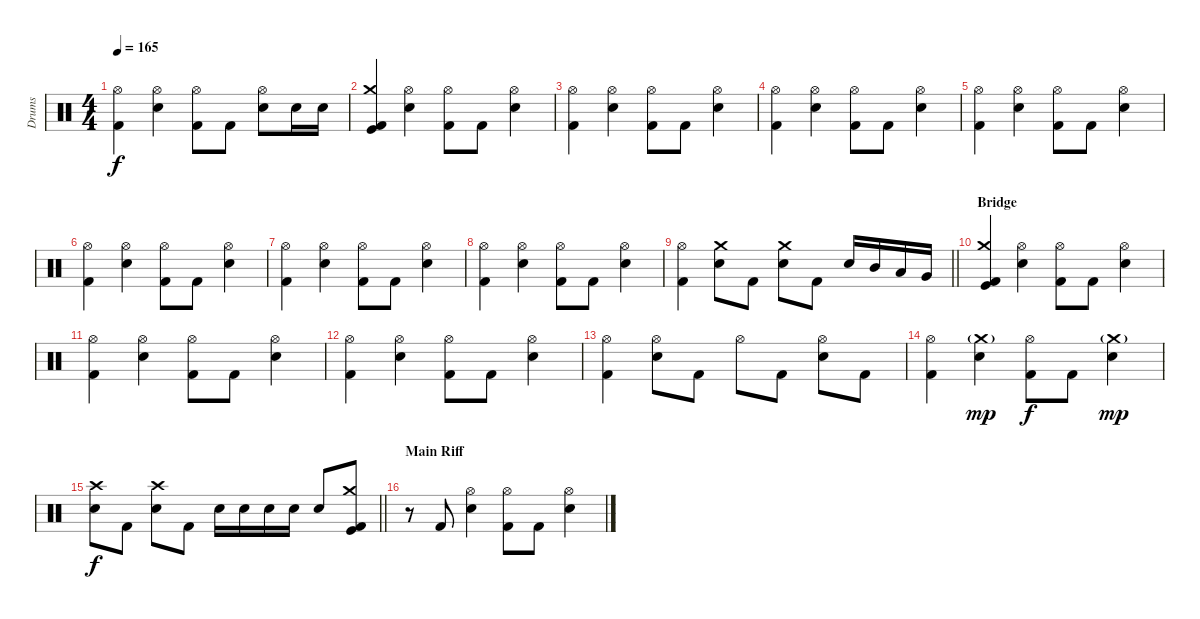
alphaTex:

\track ("Drums" "Drums") {instrument percussion}
\staff {score}
\articulation defaults
\ts (4 4)
\tempo 165
\clef neutral
\ks c
("Hi-Hat (open)" "Kick (hit) 2").4{dy f} ("Hi-Hat (open)" "Electric Snare (hit)").4 ("Hi-Hat (open)" "Kick (hit) 2").8 "Kick (hit) 2".8 ("Hi-Hat (open)" "Electric Snare (hit)").8 "Electric Snare (hit)".16 "Electric Snare (hit)".16 |
("Crash medium (hit)" "Kick (hit) 2" "Kick (hit)").4 ("Hi-Hat (open)" "Electric Snare (hit)").4 ("Hi-Hat (open)" "Kick (hit) 2").8 "Kick (hit) 2".8 ("Hi-Hat (open)" "Electric Snare (hit)").4 |
("Hi-Hat (open)" "Kick (hit) 2").4 ("Hi-Hat (open)" "Electric Snare (hit)").4 ("Hi-Hat (open)" "Kick (hit) 2").8 "Kick (hit) 2".8 ("Hi-Hat (open)" "Electric Snare (hit)").4 |
("Hi-Hat (open)" "Kick (hit) 2").4 ("Hi-Hat (open)" "Electric Snare (hit)").4 ("Hi-Hat (open)" "Kick (hit) 2").8 "Kick (hit) 2".8 ("Hi-Hat (open)" "Electric Snare (hit)").4 |
("Hi-Hat (open)" "Kick (hit) 2").4 ("Hi-Hat (open)" "Electric Snare (hit)").4 ("Hi-Hat (open)" "Kick (hit) 2").8 "Kick (hit) 2".8 ("Hi-Hat (open)" "Electric Snare (hit)").4 |
("Hi-Hat (open)" "Kick (hit) 2").4 ("Hi-Hat (open)" "Electric Snare (hit)").4 ("Hi-Hat (open)" "Kick (hit) 2").8 "Kick (hit) 2".8 ("Hi-Hat (open)" "Electric Snare (hit)").4 |
("Hi-Hat (open)" "Kick (hit) 2").4 ("Hi-Hat (open)" "Electric Snare (hit)").4 ("Hi-Hat (open)" "Kick (hit) 2").8 "Kick (hit) 2".8 ("Hi-Hat (open)" "Electric Snare (hit)").4 |
("Hi-Hat (open)" "Kick (hit) 2").4 ("Hi-Hat (open)" "Electric Snare (hit)").4 ("Hi-Hat (open)" "Kick (hit) 2").8 "Kick (hit) 2".8 ("Hi-Hat (open)" "Electric Snare (hit)").4 |
\barLineRight lightlight
("Hi-Hat (open)" "Kick (hit) 2").4 ("Crash medium (hit)" "Electric Snare (hit)").8 "Kick (hit) 2".8 ("Crash medium (hit)" "Electric Snare (hit)").8 "Kick (hit) 2".8 "Electric Snare (hit)".16 "Mid Tom (hit)".16 "Low Tom (hit)".16 "Very Low Tom (hit)".16 |
\section ("" "Bridge")
("Crash medium (hit)" "Kick (hit) 2" "Kick (hit)").4 ("Hi-Hat (open)" "Electric Snare (hit)").4 ("Hi-Hat (open)" "Kick (hit) 2").8 "Kick (hit) 2".8 ("Hi-Hat (open)" "Electric Snare (hit)").4 |
("Hi-Hat (open)" "Kick (hit) 2").4 ("Hi-Hat (open)" "Electric Snare (hit)").4 ("Hi-Hat (open)" "Kick (hit) 2").8 "Kick (hit) 2".8 ("Hi-Hat (open)" "Electric Snare (hit)").4 |
("Hi-Hat (open)" "Kick (hit) 2").4 ("Hi-Hat (open)" "Electric Snare (hit)").4 ("Hi-Hat (open)" "Kick (hit) 2").8 "Kick (hit) 2".8 ("Hi-Hat (open)" "Electric Snare (hit)").4 |
("Hi-Hat (open)" "Kick (hit) 2").4 ("Hi-Hat (open)" "Electric Snare (hit)").8 "Kick (hit) 2".8 "Hi-Hat (open)".8 "Kick (hit) 2".8 ("Hi-Hat (open)" "Electric Snare (hit)").8 "Kick (hit) 2".8 |
("Hi-Hat (open)" "Kick (hit) 2").4 ("Crash medium (hit)"{g} "Electric Snare (hit)").4{dy mp} ("Hi-Hat (open)" "Kick (hit) 2").8{dy f} "Kick (hit) 2".8 ("Crash medium (hit)"{g} "Electric Snare (hit)").4{dy mp} |
\barLineRight lightlight
("Crash high (hit)" "Electric Snare (hit)").8{dy f} "Kick (hit) 2".8 ("Crash high (hit)" "Electric Snare (hit)").8 "Kick (hit) 2".8 "Electric Snare (hit)".16 "Electric Snare (hit)".16 "Electric Snare (hit)".16 "Electric Snare (hit)".16 "Electric Snare (hit)".8 ("Crash medium (hit)" "Kick (hit) 2" "Kick (hit)").8 |
\section ("" "Main Riff")
r.8 "Kick (hit) 2".8 ("Hi-Hat (open)" "Electric Snare (hit)").4 ("Hi-Hat (open)" "Kick (hit) 2").8 "Kick (hit) 2".8 ("Hi-Hat (open)" "Electric Snare (hit)").4
